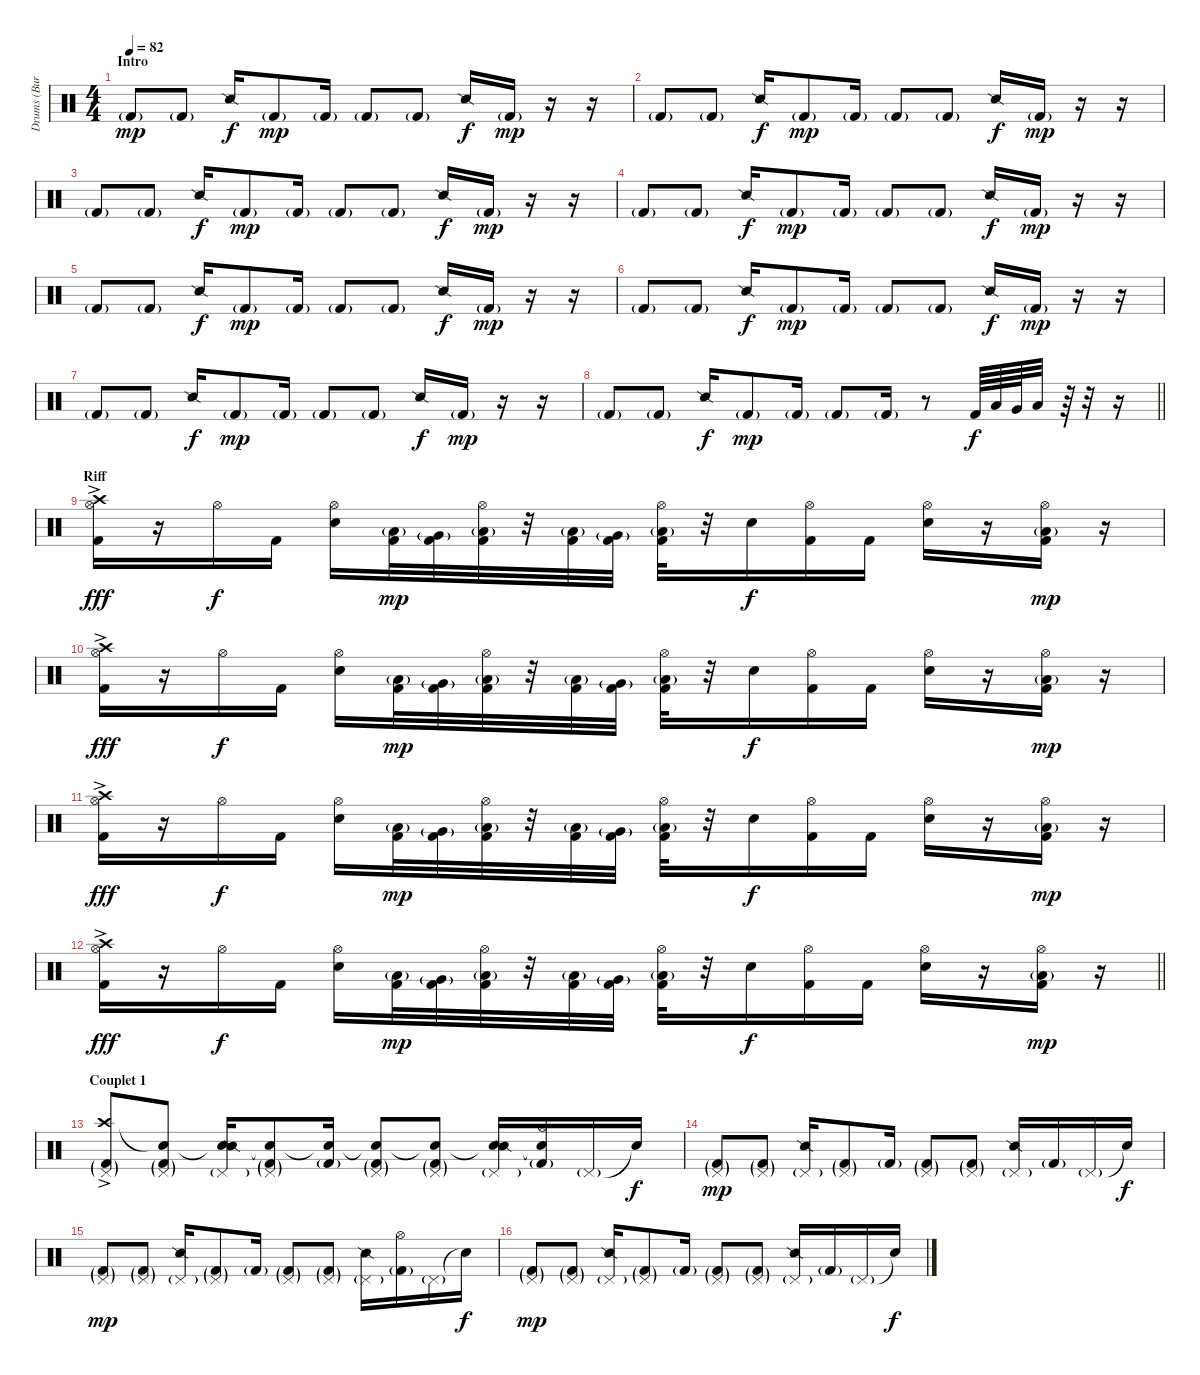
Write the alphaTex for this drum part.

\track ("Drums (Burns)" "Drums (Bur") {instrument percussion}
\staff {score}
\articulation defaults
\ts (4 4)
\section ("" "Intro")
\tempo 82
\clef neutral
\ks c "Kick (hit) 2"{g}.8{dy mp} "Kick (hit) 2"{g}.8 "Snare (side stick) 2".16{dy f} "Kick (hit) 2"{g}.8{dy mp} "Kick (hit) 2"{g}.16 "Kick (hit) 2"{g}.8 "Kick (hit) 2"{g}.8 "Snare (side stick) 2".16{dy f} "Kick (hit) 2"{g}.16{dy mp}
r.16 r.16 |
"Kick (hit) 2"{g}.8 "Kick (hit) 2"{g}.8 "Snare (side stick) 2".16{dy f} "Kick (hit) 2"{g}.8{dy mp} "Kick (hit) 2"{g}.16 "Kick (hit) 2"{g}.8 "Kick (hit) 2"{g}.8 "Snare (side stick) 2".16{dy f} "Kick (hit) 2"{g}.16{dy mp} r.16 r.16 |
"Kick (hit) 2"{g}.8 "Kick (hit) 2"{g}.8 "Snare (side stick) 2".16{dy f} "Kick (hit) 2"{g}.8{dy mp} "Kick (hit) 2"{g}.16 "Kick (hit) 2"{g}.8 "Kick (hit) 2"{g}.8 "Snare (side stick) 2".16{dy f} "Kick (hit) 2"{g}.16{dy mp} r.16 r.16 |
"Kick (hit) 2"{g}.8 "Kick (hit) 2"{g}.8 "Snare (side stick) 2".16{dy f} "Kick (hit) 2"{g}.8{dy mp} "Kick (hit) 2"{g}.16 "Kick (hit) 2"{g}.8 "Kick (hit) 2"{g}.8 "Snare (side stick) 2".16{dy f} "Kick (hit) 2"{g}.16{dy mp} r.16 r.16 |
"Kick (hit) 2"{g}.8 "Kick (hit) 2"{g}.8 "Snare (side stick) 2".16{dy f} "Kick (hit) 2"{g}.8{dy mp} "Kick (hit) 2"{g}.16 "Kick (hit) 2"{g}.8 "Kick (hit) 2"{g}.8 "Snare (side stick) 2".16{dy f} "Kick (hit) 2"{g}.16{dy mp} r.16 r.16 |
"Kick (hit) 2"{g}.8 "Kick (hit) 2"{g}.8 "Snare (side stick) 2".16{dy f} "Kick (hit) 2"{g}.8{dy mp} "Kick (hit) 2"{g}.16 "Kick (hit) 2"{g}.8 "Kick (hit) 2"{g}.8 "Snare (side stick) 2".16{dy f} "Kick (hit) 2"{g}.16{dy mp} r.16 r.16 |
"Kick (hit) 2"{g}.8 "Kick (hit) 2"{g}.8 "Snare (side stick) 2".16{dy f} "Kick (hit) 2"{g}.8{dy mp} "Kick (hit) 2"{g}.16 "Kick (hit) 2"{g}.8 "Kick (hit) 2"{g}.8 "Snare (side stick) 2".16{dy f} "Kick (hit) 2"{g}.16{dy mp} r.16 r.16 |
\barLineRight lightlight "Kick (hit) 2"{g}.8 "Kick (hit) 2"{g}.8 "Snare (side stick) 2".16{dy f} "Kick (hit) 2"{g}.8{dy mp} "Kick (hit) 2"{g}.16 "Kick (hit) 2"{g}.8 "Kick (hit) 2"{g}.16
r.8 "Kick (hit) 2".64{dy f} "Low Tom (hit)".64 "Very Low Tom (hit)".64 "Low Floor Tom (hit)".32 r.64 r.32 r.16 |
\section ("" "Riff")
("Crash high (hit)"{ac} "Hi-Hat (open)" "Kick (hit) 2").16{dy fff} r.16 "Hi-Hat (open)".16{dy f} "Kick (hit) 2".16 ("Hi-Hat (open)" "Electric Snare (hit)").16 ("Low Tom (hit)"{g} "Kick (hit) 2").32{dy mp} ("Very Low Tom (hit)"{g} "Kick (hit) 2").32 ("Hi-Hat (open)" "Low Floor Tom (hit)"{g} "Kick (hit) 2").32 r.32 ("Low Tom (hit)"{g} "Kick (hit) 2").32 ("Very Low Tom (hit)"{g} "Kick (hit) 2").32 ("Hi-Hat (open)" "Low Floor Tom (hit)"{g} "Kick (hit) 2").32 r.32 "Electric Snare (hit)".16{dy f} ("Hi-Hat (open)" "Kick (hit) 2").16 "Kick (hit) 2".16 ("Hi-Hat (open)" "Electric Snare (hit)").16 r.16 ("Hi-Hat (open)" "Low Floor Tom (hit)"{g} "Kick (hit) 2").16{dy mp} r.16 |
("Crash high (hit)"{ac} "Hi-Hat (open)" "Kick (hit) 2").16{dy fff} r.16 "Hi-Hat (open)".16{dy f} "Kick (hit) 2".16 ("Hi-Hat (open)" "Electric Snare (hit)").16 ("Low Tom (hit)"{g} "Kick (hit) 2").32{dy mp} ("Very Low Tom (hit)"{g} "Kick (hit) 2").32 ("Hi-Hat (open)" "Low Floor Tom (hit)"{g} "Kick (hit) 2").32 r.32 ("Low Tom (hit)"{g} "Kick (hit) 2").32 ("Very Low Tom (hit)"{g} "Kick (hit) 2").32 ("Hi-Hat (open)" "Low Floor Tom (hit)"{g} "Kick (hit) 2").32 r.32 "Electric Snare (hit)".16{dy f} ("Hi-Hat (open)" "Kick (hit) 2").16 "Kick (hit) 2".16 ("Hi-Hat (open)" "Electric Snare (hit)").16 r.16 ("Hi-Hat (open)" "Low Floor Tom (hit)"{g} "Kick (hit) 2").16{dy mp} r.16 |
("Crash high (hit)"{ac} "Hi-Hat (open)" "Kick (hit) 2").16{dy fff} r.16 "Hi-Hat (open)".16{dy f} "Kick (hit) 2".16 ("Hi-Hat (open)" "Electric Snare (hit)").16 ("Low Tom (hit)"{g} "Kick (hit) 2").32{dy mp} ("Very Low Tom (hit)"{g} "Kick (hit) 2").32 ("Hi-Hat (open)" "Low Floor Tom (hit)"{g} "Kick (hit) 2").32 r.32 ("Low Tom (hit)"{g} "Kick (hit) 2").32 ("Very Low Tom (hit)"{g} "Kick (hit) 2").32 ("Hi-Hat (open)" "Low Floor Tom (hit)"{g} "Kick (hit) 2").32 r.32 "Electric Snare (hit)".16{dy f} ("Hi-Hat (open)" "Kick (hit) 2").16 "Kick (hit) 2".16 ("Hi-Hat (open)" "Electric Snare (hit)").16 r.16 ("Hi-Hat (open)" "Low Floor Tom (hit)"{g} "Kick (hit) 2").16{dy mp} r.16 |
\barLineRight lightlight
("Crash high (hit)"{ac} "Hi-Hat (open)" "Kick (hit) 2").16{dy fff} r.16 "Hi-Hat (open)".16{dy f} "Kick (hit) 2".16 ("Hi-Hat (open)" "Electric Snare (hit)").16 ("Low Tom (hit)"{g} "Kick (hit) 2").32{dy mp} ("Very Low Tom (hit)"{g} "Kick (hit) 2").32 ("Hi-Hat (open)" "Low Floor Tom (hit)"{g} "Kick (hit) 2").32 r.32 ("Low Tom (hit)"{g} "Kick (hit) 2").32 ("Very Low Tom (hit)"{g} "Kick (hit) 2").32 ("Hi-Hat (open)" "Low Floor Tom (hit)"{g} "Kick (hit) 2").32 r.32 "Electric Snare (hit)".16{dy f} ("Hi-Hat (open)" "Kick (hit) 2").16 "Kick (hit) 2".16 ("Hi-Hat (open)" "Electric Snare (hit)").16 r.16 ("Hi-Hat (open)" "Low Floor Tom (hit)"{g} "Kick (hit) 2").16{dy mp} r.16 |
\section ("" "Couplet 1")
("Crash high (hit)"{ac} "Pedal Hi-Hat (hit)"{g} "Kick (hit) 2"{g}).8 ("Snare (hit)"{t} "Pedal Hi-Hat (hit)"{g} "Kick (hit) 2"{g}).8 ("Snare (hit)"{t} "Pedal Hi-Hat (hit)"{g} "Snare (side stick) 2").16 ("Snare (hit)"{t} "Pedal Hi-Hat (hit)"{g} "Kick (hit) 2"{g}).8 ("Snare (hit)"{t} "Kick (hit) 2"{g}).16 ("Snare (hit)"{t} "Pedal Hi-Hat (hit)"{g} "Kick (hit) 2"{g}).8 ("Snare (hit)"{t} "Pedal Hi-Hat (hit)"{g} "Kick (hit) 2"{g}).8 ("Snare (hit)"{t} "Pedal Hi-Hat (hit)"{g} "Snare (side stick) 2").16 ("Snare (hit)"{t} "Hi-Hat (open)" "Kick (hit) 2"{g}).16 "Pedal Hi-Hat (hit)"{g}.16 "Snare (hit)"{t}.16{dy f} |
("Pedal Hi-Hat (hit)"{g} "Kick (hit) 2"{g}).8{dy mp} ("Pedal Hi-Hat (hit)"{g} "Kick (hit) 2"{g}).8 ("Pedal Hi-Hat (hit)"{g} "Snare (side stick) 2").16 ("Pedal Hi-Hat (hit)"{g} "Kick (hit) 2"{g}).8 "Kick (hit) 2"{g}.16 ("Pedal Hi-Hat (hit)"{g} "Kick (hit) 2"{g}).8 ("Pedal Hi-Hat (hit)"{g} "Kick (hit) 2"{g}).8 ("Pedal Hi-Hat (hit)"{g} "Snare (side stick) 2").16 "Kick (hit) 2"{g}.16 "Pedal Hi-Hat (hit)"{g}.16 "Snare (hit)"{t}.16{dy f} |
("Pedal Hi-Hat (hit)"{g} "Kick (hit) 2"{g}).8{dy mp} ("Pedal Hi-Hat (hit)"{g} "Kick (hit) 2"{g}).8 ("Pedal Hi-Hat (hit)"{g} "Snare (side stick) 2").16 ("Pedal Hi-Hat (hit)"{g} "Kick (hit) 2"{g}).8 "Kick (hit) 2"{g}.16 ("Pedal Hi-Hat (hit)"{g} "Kick (hit) 2"{g}).8 ("Pedal Hi-Hat (hit)"{g} "Kick (hit) 2"{g}).8 ("Pedal Hi-Hat (hit)"{g} "Snare (side stick) 2").16 ("Hi-Hat (open)" "Kick (hit) 2"{g}).16 "Pedal Hi-Hat (hit)"{g}.16 "Snare (hit)"{t}.16{dy f} |
("Pedal Hi-Hat (hit)"{g} "Kick (hit) 2"{g}).8{dy mp} ("Pedal Hi-Hat (hit)"{g} "Kick (hit) 2"{g}).8 ("Pedal Hi-Hat (hit)"{g} "Snare (side stick) 2").16 ("Pedal Hi-Hat (hit)"{g} "Kick (hit) 2"{g}).8 "Kick (hit) 2"{g}.16 ("Pedal Hi-Hat (hit)"{g} "Kick (hit) 2"{g}).8 ("Pedal Hi-Hat (hit)"{g} "Kick (hit) 2"{g}).8 ("Pedal Hi-Hat (hit)"{g} "Snare (side stick) 2").16 "Kick (hit) 2"{g}.16 "Pedal Hi-Hat (hit)"{g}.16 "Snare (hit)"{t}.16{dy f}
